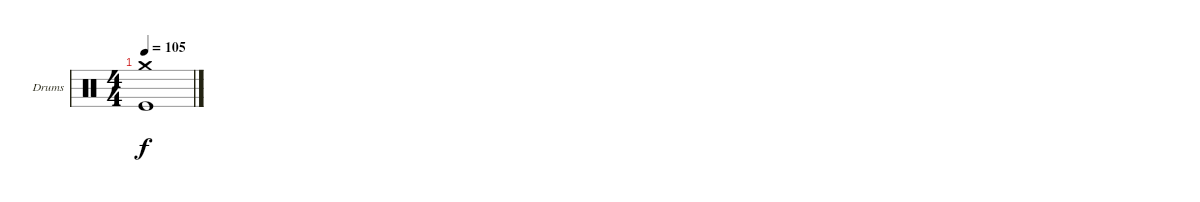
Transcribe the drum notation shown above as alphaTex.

\defaultSystemsLayout 4
\bracketExtendMode groupsimilarinstruments
\firstSystemTrackNameOrientation horizontal
\otherSystemsTrackNameOrientation horizontal
\track ("Drumkit" "Drums") {instrument percussion}
\staff {score}
\articulation defaults
\ts (4 4)
\tempo 105
\clef neutral
\ks c
("Kick (hit)" "Crash medium (hit)").1{dy f}
